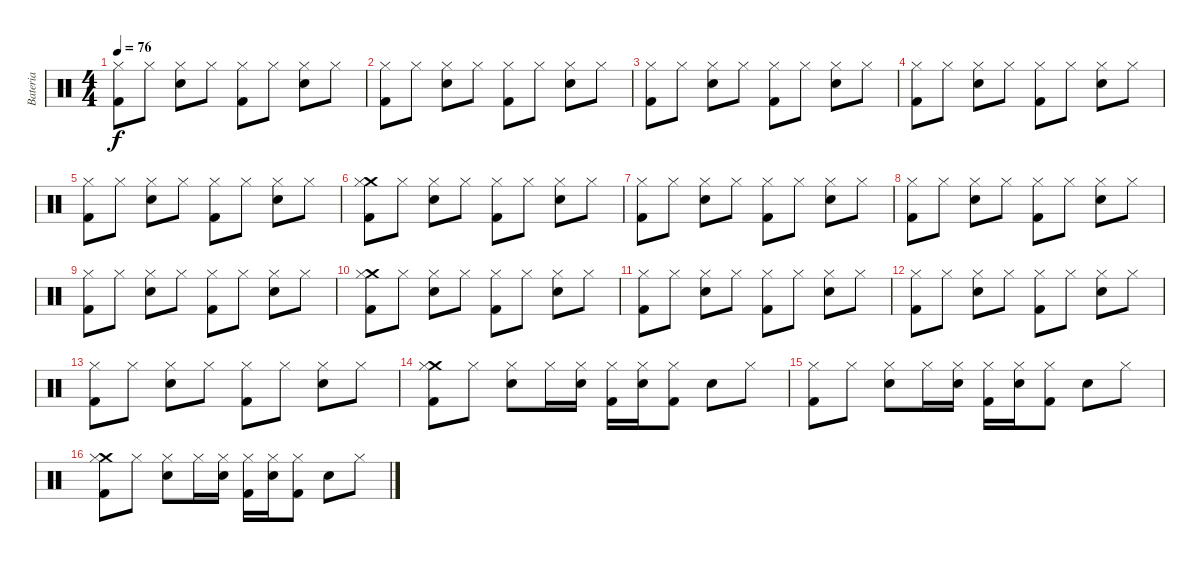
\track ("Bateria" "Bateria") {instrument percussion}
\staff {score}
\articulation defaults
\ts (4 4)
\tempo 76
\clef neutral
\ks c
("Hi-Hat (closed)" "Kick (hit) 2").8{dy f} "Hi-Hat (closed)".8 ("Snare (hit) 2" "Hi-Hat (closed)").8 "Hi-Hat (closed)".8 ("Hi-Hat (closed)" "Kick (hit) 2").8 "Hi-Hat (closed)".8 ("Snare (hit) 2" "Hi-Hat (closed)").8 "Hi-Hat (closed)".8 |
("Hi-Hat (closed)" "Kick (hit) 2").8 "Hi-Hat (closed)".8 ("Snare (hit) 2" "Hi-Hat (closed)").8 "Hi-Hat (closed)".8 ("Hi-Hat (closed)" "Kick (hit) 2").8 "Hi-Hat (closed)".8 ("Snare (hit) 2" "Hi-Hat (closed)").8 "Hi-Hat (closed)".8 |
("Hi-Hat (closed)" "Kick (hit) 2").8 "Hi-Hat (closed)".8 ("Snare (hit) 2" "Hi-Hat (closed)").8 "Hi-Hat (closed)".8 ("Hi-Hat (closed)" "Kick (hit) 2").8 "Hi-Hat (closed)".8 ("Snare (hit) 2" "Hi-Hat (closed)").8 "Hi-Hat (closed)".8 |
("Hi-Hat (closed)" "Kick (hit) 2").8 "Hi-Hat (closed)".8 ("Snare (hit) 2" "Hi-Hat (closed)").8 "Hi-Hat (closed)".8 ("Hi-Hat (closed)" "Kick (hit) 2").8 "Hi-Hat (closed)".8 ("Snare (hit) 2" "Hi-Hat (closed)").8 "Hi-Hat (closed)".8 |
("Hi-Hat (closed)" "Kick (hit) 2").8 "Hi-Hat (closed)".8 ("Snare (hit) 2" "Hi-Hat (closed)").8 "Hi-Hat (closed)".8 ("Hi-Hat (closed)" "Kick (hit) 2").8 "Hi-Hat (closed)".8 ("Snare (hit) 2" "Hi-Hat (closed)").8 "Hi-Hat (closed)".8 |
("Crash medium (hit)" "Hi-Hat (closed)" "Kick (hit) 2").8 "Hi-Hat (closed)".8 ("Snare (hit) 2" "Hi-Hat (closed)").8 "Hi-Hat (closed)".8 ("Hi-Hat (closed)" "Kick (hit) 2").8 "Hi-Hat (closed)".8 ("Snare (hit) 2" "Hi-Hat (closed)").8 "Hi-Hat (closed)".8 |
("Hi-Hat (closed)" "Kick (hit) 2").8 "Hi-Hat (closed)".8 ("Snare (hit) 2" "Hi-Hat (closed)").8 "Hi-Hat (closed)".8 ("Hi-Hat (closed)" "Kick (hit) 2").8 "Hi-Hat (closed)".8 ("Snare (hit) 2" "Hi-Hat (closed)").8 "Hi-Hat (closed)".8 |
("Hi-Hat (closed)" "Kick (hit) 2").8 "Hi-Hat (closed)".8 ("Snare (hit) 2" "Hi-Hat (closed)").8 "Hi-Hat (closed)".8 ("Hi-Hat (closed)" "Kick (hit) 2").8 "Hi-Hat (closed)".8 ("Snare (hit) 2" "Hi-Hat (closed)").8 "Hi-Hat (closed)".8 |
("Hi-Hat (closed)" "Kick (hit) 2").8 "Hi-Hat (closed)".8 ("Snare (hit) 2" "Hi-Hat (closed)").8 "Hi-Hat (closed)".8 ("Hi-Hat (closed)" "Kick (hit) 2").8 "Hi-Hat (closed)".8 ("Snare (hit) 2" "Hi-Hat (closed)").8 "Hi-Hat (closed)".8 |
("Crash medium (hit)" "Hi-Hat (closed)" "Kick (hit) 2").8 "Hi-Hat (closed)".8 ("Snare (hit) 2" "Hi-Hat (closed)").8 "Hi-Hat (closed)".8 ("Hi-Hat (closed)" "Kick (hit) 2").8 "Hi-Hat (closed)".8 ("Snare (hit) 2" "Hi-Hat (closed)").8 "Hi-Hat (closed)".8 |
("Hi-Hat (closed)" "Kick (hit) 2").8 "Hi-Hat (closed)".8 ("Snare (hit) 2" "Hi-Hat (closed)").8 "Hi-Hat (closed)".8 ("Hi-Hat (closed)" "Kick (hit) 2").8 "Hi-Hat (closed)".8 ("Snare (hit) 2" "Hi-Hat (closed)").8 "Hi-Hat (closed)".8 |
("Hi-Hat (closed)" "Kick (hit) 2").8 "Hi-Hat (closed)".8 ("Snare (hit) 2" "Hi-Hat (closed)").8 "Hi-Hat (closed)".8 ("Hi-Hat (closed)" "Kick (hit) 2").8 "Hi-Hat (closed)".8 ("Snare (hit) 2" "Hi-Hat (closed)").8 "Hi-Hat (closed)".8 |
("Hi-Hat (closed)" "Kick (hit) 2").8 "Hi-Hat (closed)".8 ("Snare (hit) 2" "Hi-Hat (closed)").8 "Hi-Hat (closed)".8 ("Hi-Hat (closed)" "Kick (hit) 2").8 "Hi-Hat (closed)".8 ("Snare (hit) 2" "Hi-Hat (closed)").8 "Hi-Hat (closed)".8 |
("Crash medium (hit)" "Hi-Hat (closed)" "Kick (hit) 2").8{volume 11} "Hi-Hat (closed)".8 ("Snare (hit) 2" "Hi-Hat (closed)").8 "Hi-Hat (closed)".16 ("Snare (hit) 2" "Hi-Hat (closed)").16 ("Hi-Hat (closed)" "Kick (hit) 2").16 ("Snare (hit) 2" "Hi-Hat (closed)").16 ("Hi-Hat (closed)" "Kick (hit) 2").8 "Snare (hit) 2".8 "Hi-Hat (closed)".8 |
("Hi-Hat (closed)" "Kick (hit) 2").8 "Hi-Hat (closed)".8 ("Snare (hit) 2" "Hi-Hat (closed)").8 "Hi-Hat (closed)".16 ("Snare (hit) 2" "Hi-Hat (closed)").16 ("Hi-Hat (closed)" "Kick (hit) 2").16 ("Snare (hit) 2" "Hi-Hat (closed)").16 ("Hi-Hat (closed)" "Kick (hit) 2").8 "Snare (hit) 2".8 "Hi-Hat (closed)".8 |
("Crash medium (hit)" "Hi-Hat (closed)" "Kick (hit) 2").8 "Hi-Hat (closed)".8 ("Snare (hit) 2" "Hi-Hat (closed)").8 "Hi-Hat (closed)".16 ("Snare (hit) 2" "Hi-Hat (closed)").16 ("Hi-Hat (closed)" "Kick (hit) 2").16 ("Snare (hit) 2" "Hi-Hat (closed)").16 ("Hi-Hat (closed)" "Kick (hit) 2").8 "Snare (hit) 2".8 "Hi-Hat (closed)".8
